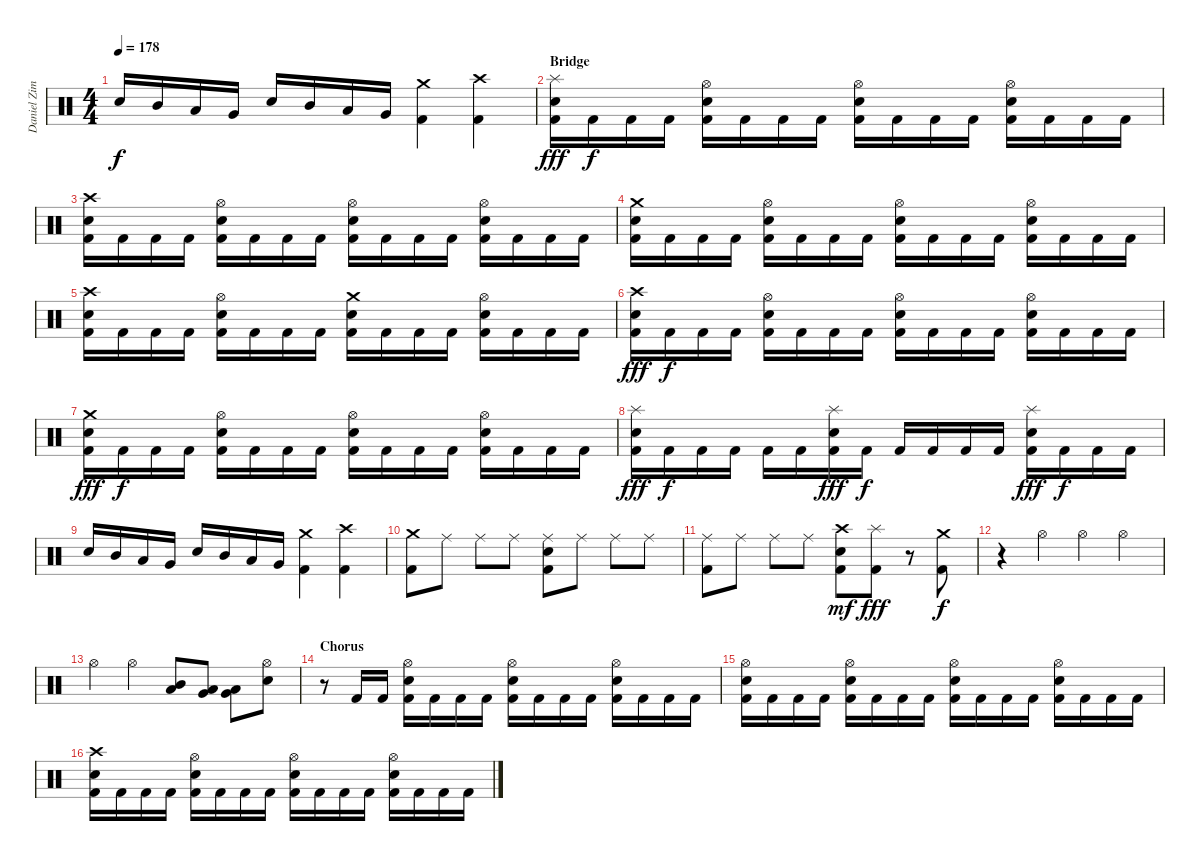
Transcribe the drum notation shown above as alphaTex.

\track ("Daniel Zimmermann" "Daniel Zim") {instrument percussion}
\staff {score}
\articulation defaults
\ts (4 4)
\tempo 178
\clef neutral
\ks c "Electric Snare (hit)".16{dy f} "Mid Tom (hit)".16 "Low Tom (hit)".16 "Very Low Tom (hit)".16 "Electric Snare (hit)".16 "Mid Tom (hit)".16 "Low Tom (hit)".16 "Very Low Tom (hit)".16
("Kick (hit) 2" "Crash medium (hit)").4 ("Kick (hit) 2" "Crash high (hit)").4 |
\section ("" "Bridge")
("Kick (hit) 2" "Electric Snare (hit)" "Splash (hit)").16{dy fff} "Kick (hit) 2".16{dy f} "Kick (hit) 2".16 "Kick (hit) 2".16 ("Kick (hit) 2" "Electric Snare (hit)" "Hi-Hat (open)").16 "Kick (hit) 2".16 "Kick (hit) 2".16 "Kick (hit) 2".16 ("Kick (hit) 2" "Electric Snare (hit)" "Hi-Hat (open)").16 "Kick (hit) 2".16 "Kick (hit) 2".16 "Kick (hit) 2".16 ("Kick (hit) 2" "Electric Snare (hit)" "Hi-Hat (open)").16 "Kick (hit) 2".16 "Kick (hit) 2".16 "Kick (hit) 2".16 |
("Kick (hit) 2" "Electric Snare (hit)" "Crash high (hit)").16 "Kick (hit) 2".16 "Kick (hit) 2".16 "Kick (hit) 2".16 ("Kick (hit) 2" "Electric Snare (hit)" "Hi-Hat (open)").16 "Kick (hit) 2".16 "Kick (hit) 2".16 "Kick (hit) 2".16 ("Kick (hit) 2" "Electric Snare (hit)" "Hi-Hat (open)").16 "Kick (hit) 2".16 "Kick (hit) 2".16 "Kick (hit) 2".16 ("Kick (hit) 2" "Electric Snare (hit)" "Hi-Hat (open)").16 "Kick (hit) 2".16 "Kick (hit) 2".16 "Kick (hit) 2".16 |
("Kick (hit) 2" "Electric Snare (hit)" "Crash medium (hit)").16 "Kick (hit) 2".16 "Kick (hit) 2".16 "Kick (hit) 2".16 ("Kick (hit) 2" "Electric Snare (hit)" "Hi-Hat (open)").16 "Kick (hit) 2".16 "Kick (hit) 2".16 "Kick (hit) 2".16 ("Kick (hit) 2" "Electric Snare (hit)" "Hi-Hat (open)").16 "Kick (hit) 2".16 "Kick (hit) 2".16 "Kick (hit) 2".16 ("Kick (hit) 2" "Electric Snare (hit)" "Hi-Hat (open)").16 "Kick (hit) 2".16 "Kick (hit) 2".16 "Kick (hit) 2".16 |
("Kick (hit) 2" "Electric Snare (hit)" "Crash high (hit)").16 "Kick (hit) 2".16 "Kick (hit) 2".16 "Kick (hit) 2".16 ("Kick (hit) 2" "Electric Snare (hit)" "Hi-Hat (open)").16 "Kick (hit) 2".16 "Kick (hit) 2".16 "Kick (hit) 2".16 ("Kick (hit) 2" "Electric Snare (hit)" "Crash medium (hit)").16 "Kick (hit) 2".16 "Kick (hit) 2".16 "Kick (hit) 2".16 ("Kick (hit) 2" "Electric Snare (hit)" "Hi-Hat (open)").16 "Kick (hit) 2".16 "Kick (hit) 2".16 "Kick (hit) 2".16 |
("Kick (hit) 2" "Electric Snare (hit)" "Crash high (hit)").16{dy fff} "Kick (hit) 2".16{dy f} "Kick (hit) 2".16 "Kick (hit) 2".16 ("Kick (hit) 2" "Electric Snare (hit)" "Hi-Hat (open)").16 "Kick (hit) 2".16 "Kick (hit) 2".16 "Kick (hit) 2".16 ("Kick (hit) 2" "Electric Snare (hit)" "Hi-Hat (open)").16 "Kick (hit) 2".16 "Kick (hit) 2".16 "Kick (hit) 2".16 ("Kick (hit) 2" "Electric Snare (hit)" "Hi-Hat (open)").16 "Kick (hit) 2".16 "Kick (hit) 2".16 "Kick (hit) 2".16 |
("Kick (hit) 2" "Electric Snare (hit)" "Crash medium (hit)").16{dy fff} "Kick (hit) 2".16{dy f} "Kick (hit) 2".16 "Kick (hit) 2".16 ("Kick (hit) 2" "Electric Snare (hit)" "Hi-Hat (open)").16 "Kick (hit) 2".16 "Kick (hit) 2".16 "Kick (hit) 2".16 ("Kick (hit) 2" "Electric Snare (hit)" "Hi-Hat (open)").16 "Kick (hit) 2".16 "Kick (hit) 2".16 "Kick (hit) 2".16 ("Kick (hit) 2" "Electric Snare (hit)" "Hi-Hat (open)").16 "Kick (hit) 2".16 "Kick (hit) 2".16 "Kick (hit) 2".16 |
("Kick (hit) 2" "Electric Snare (hit)" "Splash (hit)").16{dy fff} "Kick (hit) 2".16{dy f} "Kick (hit) 2".16 "Kick (hit) 2".16 "Kick (hit) 2".16 "Kick (hit) 2".16 ("Kick (hit) 2" "Electric Snare (hit)" "Splash (hit)").16{dy fff} "Kick (hit) 2".16{dy f} "Kick (hit) 2".16 "Kick (hit) 2".16 "Kick (hit) 2".16 "Kick (hit) 2".16 ("Kick (hit) 2" "Electric Snare (hit)" "Splash (hit)").16{dy fff} "Kick (hit) 2".16{dy f} "Kick (hit) 2".16 "Kick (hit) 2".16 |
"Electric Snare (hit)".16 "Mid Tom (hit)".16 "Low Tom (hit)".16 "Very Low Tom (hit)".16 "Electric Snare (hit)".16 "Mid Tom (hit)".16 "Low Tom (hit)".16 "Very Low Tom (hit)".16 ("Kick (hit) 2" "Crash medium (hit)").4 ("Kick (hit) 2" "Crash high (hit)").4 |
("Kick (hit) 2" "Crash medium (hit)").8 "Ride (middle)".8 "Ride (middle)".8 "Ride (middle)".8 ("Kick (hit) 2" "Electric Snare (hit)" "Ride (middle)").8 "Ride (middle)".8 "Ride (middle)".8 "Ride (middle)".8 |
("Kick (hit) 2" "Ride (middle)").8 "Ride (middle)".8 "Ride (middle)".8 "Ride (middle)".8 ("Kick (hit) 2" "Electric Snare (hit)" "Crash high (hit)").8{dy mf} ("Kick (hit) 2" "Splash (hit)").8{dy fff} r.8 ("Kick (hit) 2" "Crash medium (hit)").8{dy f} |
r.4 "Hi-Hat (open)".4 "Hi-Hat (open)".4 "Hi-Hat (open)".4 |
"Hi-Hat (open)".4 "Hi-Hat (open)".4 ("Mid Tom (hit)" "Low Tom (hit)").8 ("Low Tom (hit)" "Very Low Tom (hit)").8 ("Very Low Tom (hit)" "Low Floor Tom (hit)").8 ("Electric Snare (hit)" "Hi-Hat (open)").8 |
\section ("" "Chorus")
r.8 "Kick (hit) 2".16 "Kick (hit) 2".16 ("Kick (hit) 2" "Electric Snare (hit)" "Hi-Hat (open)").16 "Kick (hit) 2".16 "Kick (hit) 2".16 "Kick (hit) 2".16 ("Kick (hit) 2" "Electric Snare (hit)" "Hi-Hat (open)").16 "Kick (hit) 2".16 "Kick (hit) 2".16 "Kick (hit) 2".16 ("Kick (hit) 2" "Electric Snare (hit)" "Hi-Hat (open)").16 "Kick (hit) 2".16 "Kick (hit) 2".16 "Kick (hit) 2".16 |
("Kick (hit) 2" "Electric Snare (hit)" "Hi-Hat (open)").16 "Kick (hit) 2".16 "Kick (hit) 2".16 "Kick (hit) 2".16 ("Kick (hit) 2" "Electric Snare (hit)" "Hi-Hat (open)").16 "Kick (hit) 2".16 "Kick (hit) 2".16 "Kick (hit) 2".16 ("Kick (hit) 2" "Electric Snare (hit)" "Hi-Hat (open)").16 "Kick (hit) 2".16 "Kick (hit) 2".16 "Kick (hit) 2".16 ("Kick (hit) 2" "Electric Snare (hit)" "Hi-Hat (open)").16 "Kick (hit) 2".16 "Kick (hit) 2".16 "Kick (hit) 2".16 |
("Kick (hit) 2" "Electric Snare (hit)" "Crash high (hit)").16 "Kick (hit) 2".16 "Kick (hit) 2".16 "Kick (hit) 2".16 ("Kick (hit) 2" "Electric Snare (hit)" "Hi-Hat (open)").16 "Kick (hit) 2".16 "Kick (hit) 2".16 "Kick (hit) 2".16 ("Kick (hit) 2" "Electric Snare (hit)" "Hi-Hat (open)").16 "Kick (hit) 2".16 "Kick (hit) 2".16 "Kick (hit) 2".16 ("Kick (hit) 2" "Electric Snare (hit)" "Hi-Hat (open)").16 "Kick (hit) 2".16 "Kick (hit) 2".16 "Kick (hit) 2".16
